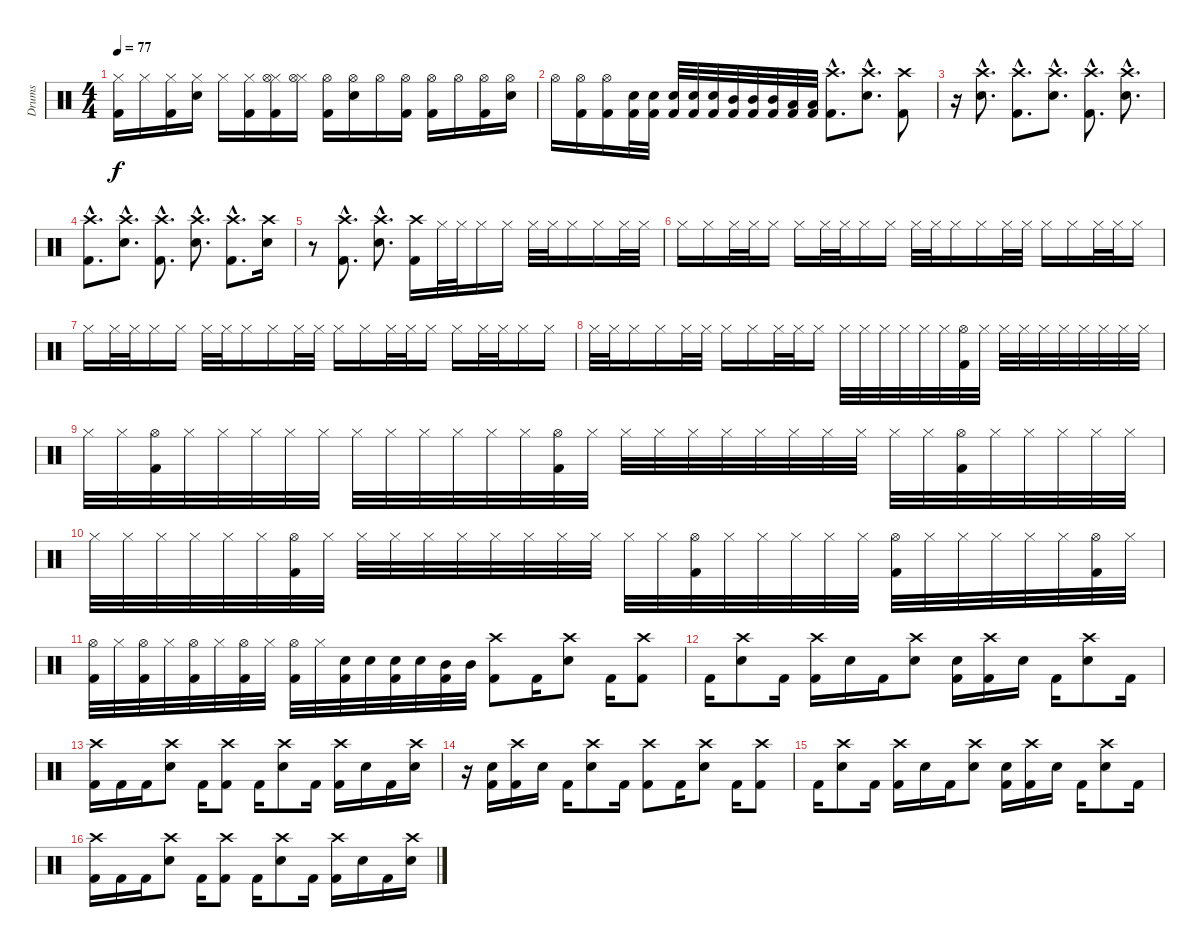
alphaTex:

\track ("Drums" "Drums") {instrument percussion}
\staff {score}
\articulation defaults
\ts (4 4)
\tempo 77
\clef neutral
\ks c
("Hi-Hat (closed)" "Kick (hit) 2").16{dy f} "Hi-Hat (closed)".16 ("Hi-Hat (closed)" "Kick (hit) 2").16 ("Hi-Hat (closed)" "Snare (hit) 2").16 "Hi-Hat (closed)".16 ("Hi-Hat (closed)" "Kick (hit) 2").16 ("Hi-Hat (closed)" "Hi-Hat (open)" "Kick (hit) 2").16 ("Hi-Hat (closed)" "Hi-Hat (open)").16 ("Hi-Hat (open)" "Kick (hit) 2").16 ("Hi-Hat (open)" "Snare (hit) 2").16 "Hi-Hat (open)".16 ("Hi-Hat (open)" "Kick (hit) 2").16 ("Hi-Hat (open)" "Kick (hit) 2").16 "Hi-Hat (open)".16 ("Hi-Hat (open)" "Kick (hit) 2").16 ("Hi-Hat (open)" "Snare (hit) 2").16 |
"Hi-Hat (open)".16 ("Hi-Hat (open)" "Kick (hit) 2").16 ("Hi-Hat (open)" "Kick (hit) 2").16 ("Snare (hit) 2" "Kick (hit) 2").32 ("Snare (hit) 2" "Kick (hit) 2").32 ("Snare (hit) 2" "Kick (hit) 2").32 ("Snare (hit) 2" "Kick (hit) 2").32 ("Snare (hit) 2" "Kick (hit) 2").32 ("Mid Tom (hit)" "Kick (hit) 2").32 ("Mid Tom (hit)" "Kick (hit) 2").32 ("Mid Tom (hit)" "Kick (hit) 2").32 ("Low Tom (hit)" "Kick (hit) 2").32 ("Low Tom (hit)" "Kick (hit) 2").32 ("Crash high (hit)"{hac} "Kick (hit) 2"{hac}).8{d} ("Crash high (hit)"{hac} "Snare (hit) 2"{hac}).8{d} ("Crash high (hit)" "Kick (hit) 2").8 |
r.16 ("Crash high (hit)"{hac} "Snare (hit) 2"{hac}).8{d} ("Crash high (hit)"{hac} "Kick (hit) 2"{hac}).8{d} ("Crash high (hit)"{hac} "Snare (hit) 2"{hac}).8{d} ("Crash high (hit)"{hac} "Kick (hit) 2"{hac}).8{d} ("Crash high (hit)"{hac} "Snare (hit) 2"{hac}).8{d} |
("Crash high (hit)"{hac} "Kick (hit) 2"{hac}).8{d} ("Crash high (hit)"{hac} "Snare (hit) 2"{hac}).8{d} ("Crash high (hit)"{hac} "Kick (hit) 2"{hac}).8{d} ("Crash high (hit)"{hac} "Snare (hit) 2"{hac}).8{d} ("Crash high (hit)"{hac} "Kick (hit) 2"{hac}).8{d} ("Crash high (hit)" "Snare (hit) 2").16 |
r.8 ("Crash high (hit)"{hac} "Kick (hit) 2"{hac}).8{d} ("Crash high (hit)"{hac} "Snare (hit) 2"{hac}).8{d} ("Crash high (hit)" "Kick (hit) 2").16 "Hi-Hat (closed)".32 "Hi-Hat (closed)".32 "Hi-Hat (closed)".16 "Hi-Hat (closed)".16 "Hi-Hat (closed)".32 "Hi-Hat (closed)".32 "Hi-Hat (closed)".16 "Hi-Hat (closed)".16 "Hi-Hat (closed)".32 "Hi-Hat (closed)".32 |
"Hi-Hat (closed)".16 "Hi-Hat (closed)".16 "Hi-Hat (closed)".32 "Hi-Hat (closed)".32 "Hi-Hat (closed)".16 "Hi-Hat (closed)".16 "Hi-Hat (closed)".32 "Hi-Hat (closed)".32 "Hi-Hat (closed)".16 "Hi-Hat (closed)".16 "Hi-Hat (closed)".32 "Hi-Hat (closed)".32 "Hi-Hat (closed)".16 "Hi-Hat (closed)".16 "Hi-Hat (closed)".32 "Hi-Hat (closed)".32 "Hi-Hat (closed)".16 "Hi-Hat (closed)".16 "Hi-Hat (closed)".32 "Hi-Hat (closed)".32 "Hi-Hat (closed)".16 |
"Hi-Hat (closed)".16 "Hi-Hat (closed)".32 "Hi-Hat (closed)".32 "Hi-Hat (closed)".16 "Hi-Hat (closed)".16 "Hi-Hat (closed)".32 "Hi-Hat (closed)".32 "Hi-Hat (closed)".16 "Hi-Hat (closed)".16 "Hi-Hat (closed)".32 "Hi-Hat (closed)".32 "Hi-Hat (closed)".16 "Hi-Hat (closed)".16 "Hi-Hat (closed)".32 "Hi-Hat (closed)".32 "Hi-Hat (closed)".16 "Hi-Hat (closed)".16 "Hi-Hat (closed)".32 "Hi-Hat (closed)".32 "Hi-Hat (closed)".16 "Hi-Hat (closed)".16 |
"Hi-Hat (closed)".32 "Hi-Hat (closed)".32 "Hi-Hat (closed)".16 "Hi-Hat (closed)".16 "Hi-Hat (closed)".32 "Hi-Hat (closed)".32 "Hi-Hat (closed)".16 "Hi-Hat (closed)".16 "Hi-Hat (closed)".32 "Hi-Hat (closed)".32 "Hi-Hat (closed)".16 "Hi-Hat (closed)".32 "Hi-Hat (closed)".32 "Hi-Hat (closed)".32 "Hi-Hat (closed)".32 "Hi-Hat (closed)".32 "Hi-Hat (closed)".32 ("Hi-Hat (open)" "Kick (hit) 2").32 "Hi-Hat (closed)".32 "Hi-Hat (closed)".32 "Hi-Hat (closed)".32 "Hi-Hat (closed)".32 "Hi-Hat (closed)".32 "Hi-Hat (closed)".32 "Hi-Hat (closed)".32 "Hi-Hat (closed)".32 "Hi-Hat (closed)".32 |
"Hi-Hat (closed)".32 "Hi-Hat (closed)".32 ("Hi-Hat (open)" "Kick (hit) 2").32 "Hi-Hat (closed)".32 "Hi-Hat (closed)".32 "Hi-Hat (closed)".32 "Hi-Hat (closed)".32 "Hi-Hat (closed)".32 "Hi-Hat (closed)".32 "Hi-Hat (closed)".32 "Hi-Hat (closed)".32 "Hi-Hat (closed)".32 "Hi-Hat (closed)".32 "Hi-Hat (closed)".32 ("Hi-Hat (open)" "Kick (hit) 2").32 "Hi-Hat (closed)".32 "Hi-Hat (closed)".32 "Hi-Hat (closed)".32 "Hi-Hat (closed)".32 "Hi-Hat (closed)".32 "Hi-Hat (closed)".32 "Hi-Hat (closed)".32 "Hi-Hat (closed)".32 "Hi-Hat (closed)".32 "Hi-Hat (closed)".32 "Hi-Hat (closed)".32 ("Hi-Hat (open)" "Kick (hit) 2").32 "Hi-Hat (closed)".32 "Hi-Hat (closed)".32 "Hi-Hat (closed)".32 "Hi-Hat (closed)".32 "Hi-Hat (closed)".32 |
"Hi-Hat (closed)".32 "Hi-Hat (closed)".32 "Hi-Hat (closed)".32 "Hi-Hat (closed)".32 "Hi-Hat (closed)".32 "Hi-Hat (closed)".32 ("Hi-Hat (open)" "Kick (hit) 2").32 "Hi-Hat (closed)".32 "Hi-Hat (closed)".32 "Hi-Hat (closed)".32 "Hi-Hat (closed)".32 "Hi-Hat (closed)".32 "Hi-Hat (closed)".32 "Hi-Hat (closed)".32 "Hi-Hat (closed)".32 "Hi-Hat (closed)".32 "Hi-Hat (closed)".32 "Hi-Hat (closed)".32 ("Hi-Hat (open)" "Kick (hit) 2").32 "Hi-Hat (closed)".32 "Hi-Hat (closed)".32 "Hi-Hat (closed)".32 "Hi-Hat (closed)".32 "Hi-Hat (closed)".32 ("Hi-Hat (open)" "Kick (hit) 2").32 "Hi-Hat (closed)".32 "Hi-Hat (closed)".32 "Hi-Hat (closed)".32 "Hi-Hat (closed)".32 "Hi-Hat (closed)".32 ("Hi-Hat (open)" "Kick (hit) 2").32 "Hi-Hat (closed)".32 |
("Hi-Hat (open)" "Kick (hit) 2").32 "Hi-Hat (closed)".32 ("Hi-Hat (open)" "Kick (hit) 2").32 "Hi-Hat (closed)".32 ("Hi-Hat (open)" "Kick (hit) 2").32 "Hi-Hat (closed)".32 ("Hi-Hat (open)" "Kick (hit) 2").32 "Hi-Hat (closed)".32 ("Hi-Hat (open)" "Kick (hit) 2").32 "Hi-Hat (closed)".32 ("Snare (hit) 2" "Kick (hit) 2").32 "Snare (hit) 2".32 ("Snare (hit) 2" "Kick (hit) 2").32 "Snare (hit) 2".32 ("Mid Tom (hit)" "Kick (hit) 2").32 "Mid Tom (hit)".32 ("Crash high (hit)" "Kick (hit) 2").8 "Kick (hit) 2".16 ("Crash high (hit)" "Snare (hit) 2").8 "Kick (hit) 2".16 ("Crash high (hit)" "Kick (hit) 2").8 |
"Kick (hit) 2".16 ("Crash high (hit)" "Snare (hit) 2").8 "Kick (hit) 2".16 ("Crash high (hit)" "Kick (hit) 2").16 "Snare (hit) 2".16 "Kick (hit) 2".16 ("Crash high (hit)" "Snare (hit) 2").8 ("Snare (hit) 2" "Kick (hit) 2").16 ("Crash high (hit)" "Kick (hit) 2").16 "Snare (hit) 2".16 "Kick (hit) 2".16 ("Crash high (hit)" "Snare (hit) 2").8 "Kick (hit) 2".16 |
("Crash high (hit)" "Kick (hit) 2").16 "Kick (hit) 2".16 "Kick (hit) 2".16 ("Crash high (hit)" "Snare (hit) 2").8 "Kick (hit) 2".16 ("Crash high (hit)" "Kick (hit) 2").8 "Kick (hit) 2".16 ("Crash high (hit)" "Snare (hit) 2").8 "Kick (hit) 2".16 ("Crash high (hit)" "Kick (hit) 2").16 "Snare (hit) 2".16 "Kick (hit) 2".16 ("Crash high (hit)" "Snare (hit) 2").16 |
r.16 ("Snare (hit) 2" "Kick (hit) 2").16 ("Crash high (hit)" "Kick (hit) 2").16 "Snare (hit) 2".16 "Kick (hit) 2".16 ("Crash high (hit)" "Snare (hit) 2").8 "Kick (hit) 2".16 ("Crash high (hit)" "Kick (hit) 2").8 "Kick (hit) 2".16 ("Crash high (hit)" "Snare (hit) 2").8 "Kick (hit) 2".16 ("Crash high (hit)" "Kick (hit) 2").8 |
"Kick (hit) 2".16 ("Crash high (hit)" "Snare (hit) 2").8 "Kick (hit) 2".16 ("Crash high (hit)" "Kick (hit) 2").16 "Snare (hit) 2".16 "Kick (hit) 2".16 ("Crash high (hit)" "Snare (hit) 2").8 ("Snare (hit) 2" "Kick (hit) 2").16 ("Crash high (hit)" "Kick (hit) 2").16 "Snare (hit) 2".16 "Kick (hit) 2".16 ("Crash high (hit)" "Snare (hit) 2").8 "Kick (hit) 2".16 |
("Crash high (hit)" "Kick (hit) 2").16 "Kick (hit) 2".16 "Kick (hit) 2".16 ("Crash high (hit)" "Snare (hit) 2").8 "Kick (hit) 2".16 ("Crash high (hit)" "Kick (hit) 2").8 "Kick (hit) 2".16 ("Crash high (hit)" "Snare (hit) 2").8 "Kick (hit) 2".16 ("Crash high (hit)" "Kick (hit) 2").16 "Snare (hit) 2".16 "Kick (hit) 2".16 ("Crash high (hit)" "Snare (hit) 2").16
